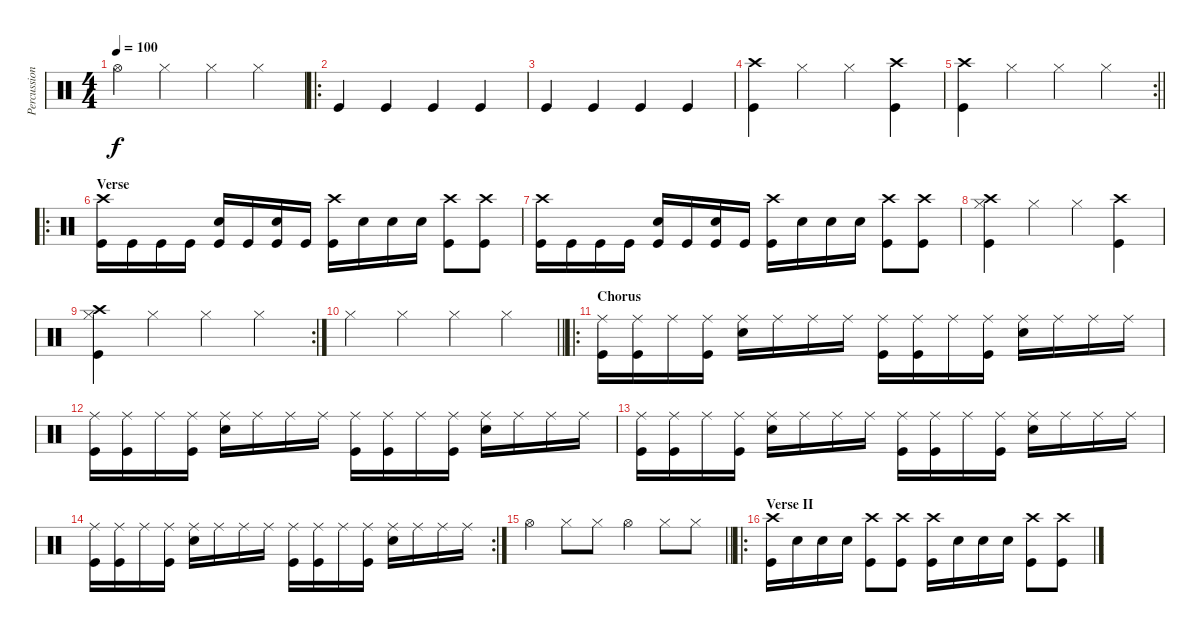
\track ("Percussion" "Percussion") {instrument percussion}
\staff {score}
\articulation defaults
\ts (4 4)
\tempo 100
\clef neutral
\ks c "Hi-Hat (open)".4{dy f} "Hi-Hat (closed)".4 "Hi-Hat (closed)".4 "Hi-Hat (closed)".4
|
\ro "Kick (hit)".4 "Kick (hit)".4 "Kick (hit)".4 "Kick (hit)".4
|
"Kick (hit)".4 "Kick (hit)".4 "Kick (hit)".4 "Kick (hit)".4 |
("Crash high (hit)" "Kick (hit)").4 "Hi-Hat (closed)".4 "Hi-Hat (closed)".4 ("Crash high (hit)" "Kick (hit)").4 |
\rc 2
\barLineRight lightlight
("Crash high (hit)" "Kick (hit)").4 "Hi-Hat (closed)".4 "Hi-Hat (closed)".4 "Hi-Hat (closed)".4 |
\ro
\section ("" "Verse")
("Crash high (hit)" "Kick (hit)").16 "Kick (hit)".16 "Kick (hit)".16 "Kick (hit)".16 ("Electric Snare (hit)" "Kick (hit)").16 "Kick (hit)".16 ("Electric Snare (hit)" "Kick (hit)").16 "Kick (hit)".16 ("Crash high (hit)" "Kick (hit)").16 "Electric Snare (hit)".16 "Electric Snare (hit)".16 "Electric Snare (hit)".16 ("Crash high (hit)" "Kick (hit)").8 ("Crash high (hit)" "Kick (hit)").8 |
("Crash high (hit)" "Kick (hit)").16 "Kick (hit)".16 "Kick (hit)".16 "Kick (hit)".16 ("Electric Snare (hit)" "Kick (hit)").16 "Kick (hit)".16 ("Electric Snare (hit)" "Kick (hit)").16 "Kick (hit)".16 ("Crash high (hit)" "Kick (hit)").16 "Electric Snare (hit)".16 "Electric Snare (hit)".16 "Electric Snare (hit)".16 ("Crash high (hit)" "Kick (hit)").8 ("Crash high (hit)" "Kick (hit)").8 |
("Crash high (hit)" "Hi-Hat (closed)" "Kick (hit)").4 "Hi-Hat (closed)".4 "Hi-Hat (closed)".4 ("Crash high (hit)" "Kick (hit)").4 |
\rc 2
("Crash high (hit)" "Hi-Hat (closed)" "Kick (hit)").4 "Hi-Hat (closed)".4 "Hi-Hat (closed)".4 "Hi-Hat (closed)".4 |
\barLineRight lightlight "Hi-Hat (closed)".4 "Hi-Hat (closed)".4 "Hi-Hat (closed)".4 "Hi-Hat (closed)".4
|
\ro
\section ("" "Chorus")
("Ride (middle)" "Kick (hit)").16 ("Ride (middle)" "Kick (hit)").16 "Ride (middle)".16 ("Ride (middle)" "Kick (hit)").16 ("Ride (middle)" "Electric Snare (hit)").16 "Ride (middle)".16 "Ride (middle)".16 "Ride (middle)".16 ("Ride (middle)" "Kick (hit)").16 ("Ride (middle)" "Kick (hit)").16 "Ride (middle)".16 ("Ride (middle)" "Kick (hit)").16 ("Ride (middle)" "Electric Snare (hit)").16 "Ride (middle)".16 "Ride (middle)".16 "Ride (middle)".16 |
("Ride (middle)" "Kick (hit)").16 ("Ride (middle)" "Kick (hit)").16 "Ride (middle)".16 ("Ride (middle)" "Kick (hit)").16 ("Ride (middle)" "Electric Snare (hit)").16 "Ride (middle)".16 "Ride (middle)".16 "Ride (middle)".16 ("Ride (middle)" "Kick (hit)").16 ("Ride (middle)" "Kick (hit)").16 "Ride (middle)".16 ("Ride (middle)" "Kick (hit)").16 ("Ride (middle)" "Electric Snare (hit)").16 "Ride (middle)".16 "Ride (middle)".16 "Ride (middle)".16 |
("Ride (middle)" "Kick (hit)").16 ("Ride (middle)" "Kick (hit)").16 "Ride (middle)".16 ("Ride (middle)" "Kick (hit)").16 ("Ride (middle)" "Electric Snare (hit)").16 "Ride (middle)".16 "Ride (middle)".16 "Ride (middle)".16 ("Ride (middle)" "Kick (hit)").16 ("Ride (middle)" "Kick (hit)").16 "Ride (middle)".16 ("Ride (middle)" "Kick (hit)").16 ("Ride (middle)" "Electric Snare (hit)").16 "Ride (middle)".16 "Ride (middle)".16 "Ride (middle)".16 |
\rc 2
("Ride (middle)" "Kick (hit)").16 ("Ride (middle)" "Kick (hit)").16 "Ride (middle)".16 ("Ride (middle)" "Kick (hit)").16 ("Ride (middle)" "Electric Snare (hit)").16 "Ride (middle)".16 "Ride (middle)".16 "Ride (middle)".16 ("Ride (middle)" "Kick (hit)").16 ("Ride (middle)" "Kick (hit)").16 "Ride (middle)".16 ("Ride (middle)" "Kick (hit)").16 ("Ride (middle)" "Electric Snare (hit)").16 "Ride (middle)".16 "Ride (middle)".16 "Ride (middle)".16 |
\barLineRight lightlight "Hi-Hat (open)".4 "Hi-Hat (closed)".8 "Hi-Hat (closed)".8 "Hi-Hat (open)".4 "Hi-Hat (closed)".8 "Hi-Hat (closed)".8
|
\ro
\section ("" "Verse II")
("Crash high (hit)" "Kick (hit)").16 "Electric Snare (hit)".16 "Electric Snare (hit)".16 "Electric Snare (hit)".16 ("Crash high (hit)" "Kick (hit)").8 ("Crash high (hit)" "Kick (hit)").8 ("Crash high (hit)" "Kick (hit)").16 "Electric Snare (hit)".16 "Electric Snare (hit)".16 "Electric Snare (hit)".16 ("Crash high (hit)" "Kick (hit)").8 ("Crash high (hit)" "Kick (hit)").8
